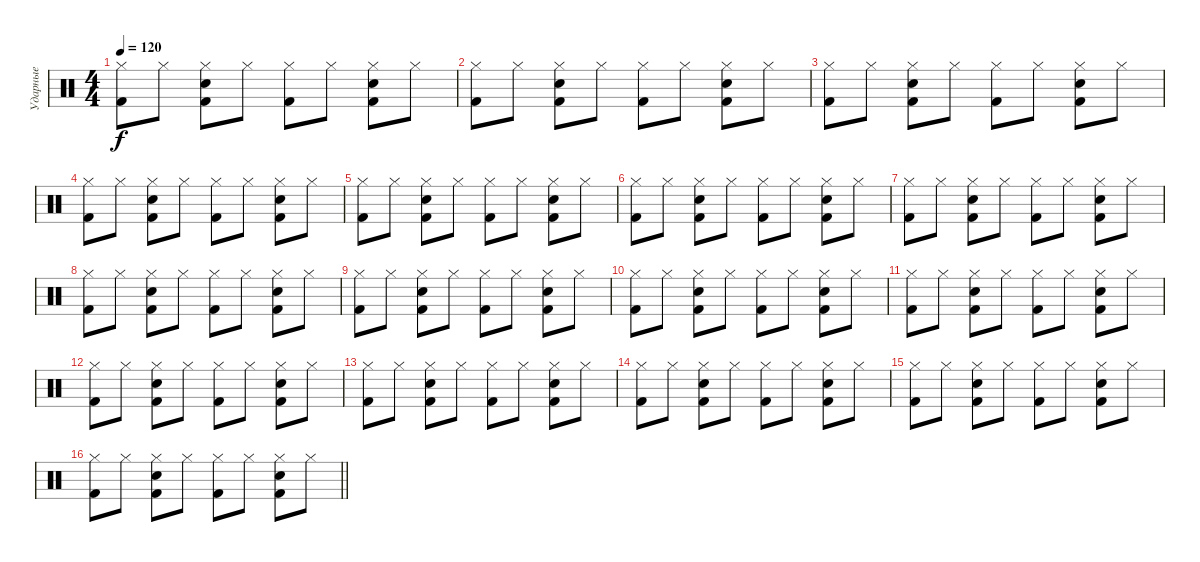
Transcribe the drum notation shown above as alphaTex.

\track ("Ударные" "Ударные") {instrument percussion}
\staff {score}
\articulation defaults
\ts (4 4)
\tempo 120
\clef neutral
\ks c
("Kick (hit) 2" "Hi-Hat (closed)").8{dy f} "Hi-Hat (closed)".8 ("Kick (hit) 2" "Snare (hit) 2" "Hi-Hat (closed)").8 "Hi-Hat (closed)".8 ("Kick (hit) 2" "Hi-Hat (closed)").8 "Hi-Hat (closed)".8 ("Kick (hit) 2" "Snare (hit) 2" "Hi-Hat (closed)").8 "Hi-Hat (closed)".8 |
("Kick (hit) 2" "Hi-Hat (closed)").8 "Hi-Hat (closed)".8 ("Kick (hit) 2" "Snare (hit) 2" "Hi-Hat (closed)").8 "Hi-Hat (closed)".8 ("Kick (hit) 2" "Hi-Hat (closed)").8 "Hi-Hat (closed)".8 ("Kick (hit) 2" "Snare (hit) 2" "Hi-Hat (closed)").8 "Hi-Hat (closed)".8 |
("Kick (hit) 2" "Hi-Hat (closed)").8 "Hi-Hat (closed)".8 ("Kick (hit) 2" "Snare (hit) 2" "Hi-Hat (closed)").8 "Hi-Hat (closed)".8 ("Kick (hit) 2" "Hi-Hat (closed)").8 "Hi-Hat (closed)".8 ("Kick (hit) 2" "Snare (hit) 2" "Hi-Hat (closed)").8 "Hi-Hat (closed)".8 |
("Kick (hit) 2" "Hi-Hat (closed)").8 "Hi-Hat (closed)".8 ("Kick (hit) 2" "Snare (hit) 2" "Hi-Hat (closed)").8 "Hi-Hat (closed)".8 ("Kick (hit) 2" "Hi-Hat (closed)").8 "Hi-Hat (closed)".8 ("Kick (hit) 2" "Snare (hit) 2" "Hi-Hat (closed)").8 "Hi-Hat (closed)".8 |
("Kick (hit) 2" "Hi-Hat (closed)").8 "Hi-Hat (closed)".8 ("Kick (hit) 2" "Snare (hit) 2" "Hi-Hat (closed)").8 "Hi-Hat (closed)".8 ("Kick (hit) 2" "Hi-Hat (closed)").8 "Hi-Hat (closed)".8 ("Kick (hit) 2" "Snare (hit) 2" "Hi-Hat (closed)").8 "Hi-Hat (closed)".8 |
("Kick (hit) 2" "Hi-Hat (closed)").8 "Hi-Hat (closed)".8 ("Kick (hit) 2" "Snare (hit) 2" "Hi-Hat (closed)").8 "Hi-Hat (closed)".8 ("Kick (hit) 2" "Hi-Hat (closed)").8 "Hi-Hat (closed)".8 ("Kick (hit) 2" "Snare (hit) 2" "Hi-Hat (closed)").8 "Hi-Hat (closed)".8 |
("Kick (hit) 2" "Hi-Hat (closed)").8 "Hi-Hat (closed)".8 ("Kick (hit) 2" "Snare (hit) 2" "Hi-Hat (closed)").8 "Hi-Hat (closed)".8 ("Kick (hit) 2" "Hi-Hat (closed)").8 "Hi-Hat (closed)".8 ("Kick (hit) 2" "Snare (hit) 2" "Hi-Hat (closed)").8 "Hi-Hat (closed)".8 |
("Kick (hit) 2" "Hi-Hat (closed)").8 "Hi-Hat (closed)".8 ("Kick (hit) 2" "Snare (hit) 2" "Hi-Hat (closed)").8 "Hi-Hat (closed)".8 ("Kick (hit) 2" "Hi-Hat (closed)").8 "Hi-Hat (closed)".8 ("Kick (hit) 2" "Snare (hit) 2" "Hi-Hat (closed)").8 "Hi-Hat (closed)".8 |
("Kick (hit) 2" "Hi-Hat (closed)").8 "Hi-Hat (closed)".8 ("Kick (hit) 2" "Snare (hit) 2" "Hi-Hat (closed)").8 "Hi-Hat (closed)".8 ("Kick (hit) 2" "Hi-Hat (closed)").8 "Hi-Hat (closed)".8 ("Kick (hit) 2" "Snare (hit) 2" "Hi-Hat (closed)").8 "Hi-Hat (closed)".8 |
("Kick (hit) 2" "Hi-Hat (closed)").8 "Hi-Hat (closed)".8 ("Kick (hit) 2" "Snare (hit) 2" "Hi-Hat (closed)").8 "Hi-Hat (closed)".8 ("Kick (hit) 2" "Hi-Hat (closed)").8 "Hi-Hat (closed)".8 ("Kick (hit) 2" "Snare (hit) 2" "Hi-Hat (closed)").8 "Hi-Hat (closed)".8 |
("Kick (hit) 2" "Hi-Hat (closed)").8 "Hi-Hat (closed)".8 ("Kick (hit) 2" "Snare (hit) 2" "Hi-Hat (closed)").8 "Hi-Hat (closed)".8 ("Kick (hit) 2" "Hi-Hat (closed)").8 "Hi-Hat (closed)".8 ("Kick (hit) 2" "Snare (hit) 2" "Hi-Hat (closed)").8 "Hi-Hat (closed)".8 |
("Kick (hit) 2" "Hi-Hat (closed)").8 "Hi-Hat (closed)".8 ("Kick (hit) 2" "Snare (hit) 2" "Hi-Hat (closed)").8 "Hi-Hat (closed)".8 ("Kick (hit) 2" "Hi-Hat (closed)").8 "Hi-Hat (closed)".8 ("Kick (hit) 2" "Snare (hit) 2" "Hi-Hat (closed)").8 "Hi-Hat (closed)".8 |
("Kick (hit) 2" "Hi-Hat (closed)").8 "Hi-Hat (closed)".8 ("Kick (hit) 2" "Snare (hit) 2" "Hi-Hat (closed)").8 "Hi-Hat (closed)".8 ("Kick (hit) 2" "Hi-Hat (closed)").8 "Hi-Hat (closed)".8 ("Kick (hit) 2" "Snare (hit) 2" "Hi-Hat (closed)").8 "Hi-Hat (closed)".8 |
("Kick (hit) 2" "Hi-Hat (closed)").8 "Hi-Hat (closed)".8 ("Kick (hit) 2" "Snare (hit) 2" "Hi-Hat (closed)").8 "Hi-Hat (closed)".8 ("Kick (hit) 2" "Hi-Hat (closed)").8 "Hi-Hat (closed)".8 ("Kick (hit) 2" "Snare (hit) 2" "Hi-Hat (closed)").8 "Hi-Hat (closed)".8 |
("Kick (hit) 2" "Hi-Hat (closed)").8 "Hi-Hat (closed)".8 ("Kick (hit) 2" "Snare (hit) 2" "Hi-Hat (closed)").8 "Hi-Hat (closed)".8 ("Kick (hit) 2" "Hi-Hat (closed)").8 "Hi-Hat (closed)".8 ("Kick (hit) 2" "Snare (hit) 2" "Hi-Hat (closed)").8 "Hi-Hat (closed)".8 |
\barLineRight lightlight
("Kick (hit) 2" "Hi-Hat (closed)").8 "Hi-Hat (closed)".8 ("Kick (hit) 2" "Snare (hit) 2" "Hi-Hat (closed)").8 "Hi-Hat (closed)".8 ("Kick (hit) 2" "Hi-Hat (closed)").8 "Hi-Hat (closed)".8 ("Kick (hit) 2" "Snare (hit) 2" "Hi-Hat (closed)").8 "Hi-Hat (closed)".8
